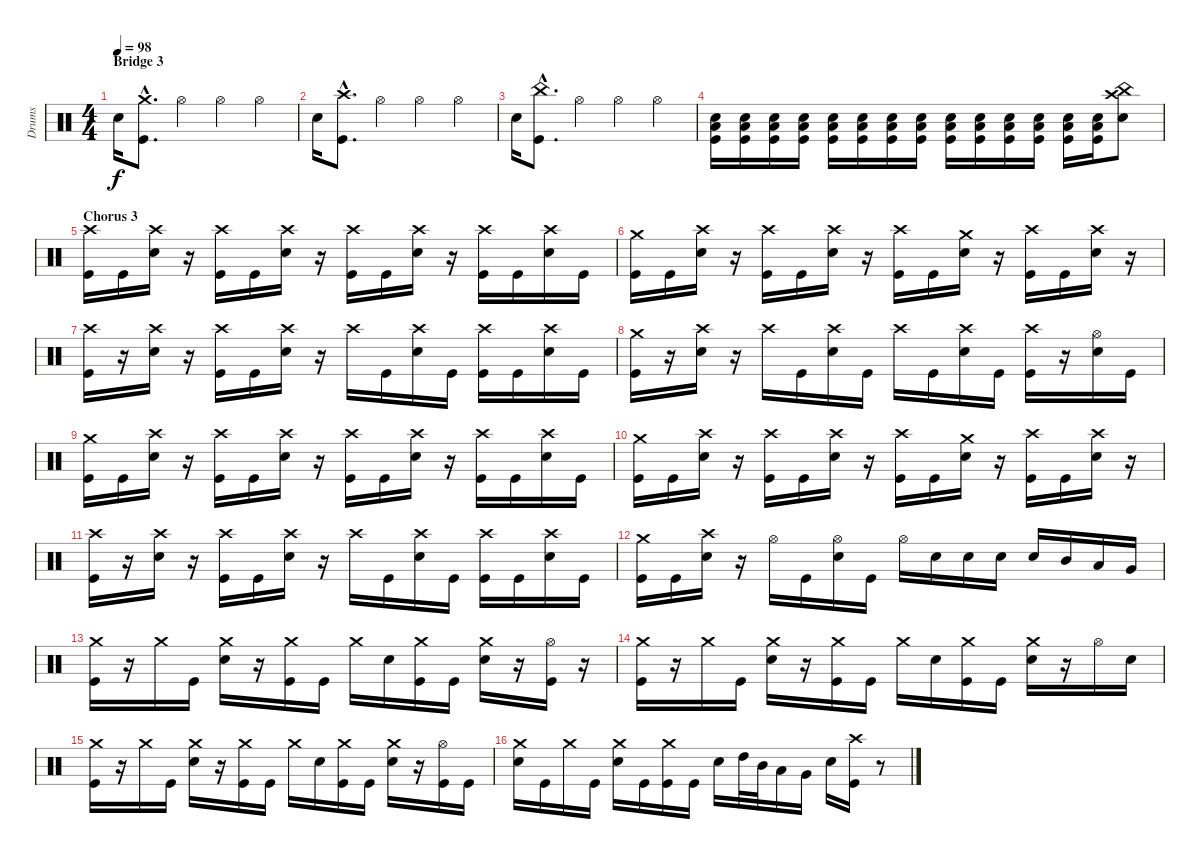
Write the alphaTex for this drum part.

\track ("Drums" "Drums") {instrument percussion}
\staff {score}
\articulation defaults
\ts (4 4)
\section ("" "Bridge 3")
\tempo 98
\clef neutral
\ks c "Electric Snare (hit)".16{dy f}
("Crash medium (hit)"{hac} "Kick (hit)"{hac}).8{d} "Hi-Hat (open)".4 "Hi-Hat (open)".4 "Hi-Hat (open)".4 |
"Electric Snare (hit)".16 ("Crash high (hit)"{hac} "Kick (hit)"{hac}).8{d} "Hi-Hat (open)".4 "Hi-Hat (open)".4 "Hi-Hat (open)".4 |
"Electric Snare (hit)".16 ("China (hit)"{hac} "Kick (hit)"{hac}).8{d} "Hi-Hat (open)".4 "Hi-Hat (open)".4 "Hi-Hat (open)".4 |
("Kick (hit)" "Low Floor Tom (hit)" "Electric Snare (hit)").16 ("Kick (hit)" "Low Floor Tom (hit)" "Electric Snare (hit)").16 ("Kick (hit)" "Low Floor Tom (hit)" "Electric Snare (hit)").16 ("Kick (hit)" "Low Floor Tom (hit)" "Electric Snare (hit)").16 ("Kick (hit)" "Low Floor Tom (hit)" "Electric Snare (hit)").16 ("Kick (hit)" "Low Floor Tom (hit)" "Electric Snare (hit)").16 ("Kick (hit)" "Low Floor Tom (hit)" "Electric Snare (hit)").16 ("Kick (hit)" "Low Floor Tom (hit)" "Electric Snare (hit)").16 ("Kick (hit)" "Low Floor Tom (hit)" "Electric Snare (hit)").16 ("Kick (hit)" "Low Floor Tom (hit)" "Electric Snare (hit)").16 ("Kick (hit)" "Low Floor Tom (hit)" "Electric Snare (hit)").16 ("Kick (hit)" "Low Floor Tom (hit)" "Electric Snare (hit)").16 ("Kick (hit)" "Low Floor Tom (hit)" "Electric Snare (hit)").16 ("Kick (hit)" "Low Floor Tom (hit)" "Electric Snare (hit)").16 ("China (hit)" "Crash high (hit)" "Electric Snare (hit)").8 |
\section ("" "Chorus 3")
("Crash high (hit)" "Kick (hit)").16 "Kick (hit)".16 ("Crash high (hit)" "Electric Snare (hit)").16 r.16 ("Crash high (hit)" "Kick (hit)").16 "Kick (hit)".16 ("Crash high (hit)" "Electric Snare (hit)").16 r.16 ("Crash high (hit)" "Kick (hit)").16 "Kick (hit)".16 ("Crash high (hit)" "Electric Snare (hit)").16 r.16 ("Crash high (hit)" "Kick (hit)").16 "Kick (hit)".16 ("Crash high (hit)" "Electric Snare (hit)").16 "Kick (hit)".16 |
("Crash medium (hit)" "Kick (hit)").16 "Kick (hit)".16 ("Crash high (hit)" "Electric Snare (hit)").16 r.16 ("Crash high (hit)" "Kick (hit)").16 "Kick (hit)".16 ("Crash high (hit)" "Electric Snare (hit)").16 r.16 ("Crash high (hit)" "Kick (hit)").16 "Kick (hit)".16 ("Crash medium (hit)" "Electric Snare (hit)").16 r.16 ("Crash high (hit)" "Kick (hit)").16 "Kick (hit)".16 ("Crash high (hit)" "Electric Snare (hit)").16 r.16 |
("Crash high (hit)" "Kick (hit)").16 r.16 ("Crash high (hit)" "Electric Snare (hit)").16 r.16 ("Crash high (hit)" "Kick (hit)").16 "Kick (hit)".16 ("Crash high (hit)" "Electric Snare (hit)").16 r.16 "Crash high (hit)".16 "Kick (hit)".16 ("Crash high (hit)" "Electric Snare (hit)").16 "Kick (hit)".16 ("Crash high (hit)" "Kick (hit)").16 "Kick (hit)".16 ("Crash high (hit)" "Electric Snare (hit)").16 "Kick (hit)".16 |
("Crash medium (hit)" "Kick (hit)").16 r.16 ("Crash high (hit)" "Electric Snare (hit)").16 r.16 "Crash high (hit)".16 "Kick (hit)".16 ("Crash high (hit)" "Electric Snare (hit)").16 "Kick (hit)".16 "Crash high (hit)".16 "Kick (hit)".16 ("Crash high (hit)" "Electric Snare (hit)").16 "Kick (hit)".16 ("Crash high (hit)" "Kick (hit)").16 r.16 ("Hi-Hat (open)" "Electric Snare (hit)").16 "Kick (hit)".16 |
("Crash medium (hit)" "Kick (hit)").16 "Kick (hit)".16 ("Crash high (hit)" "Electric Snare (hit)").16 r.16 ("Crash high (hit)" "Kick (hit)").16 "Kick (hit)".16 ("Crash high (hit)" "Electric Snare (hit)").16 r.16 ("Crash high (hit)" "Kick (hit)").16 "Kick (hit)".16 ("Crash high (hit)" "Electric Snare (hit)").16 r.16 ("Crash high (hit)" "Kick (hit)").16 "Kick (hit)".16 ("Crash high (hit)" "Electric Snare (hit)").16 "Kick (hit)".16 |
("Crash medium (hit)" "Kick (hit)").16 "Kick (hit)".16 ("Crash high (hit)" "Electric Snare (hit)").16 r.16 ("Crash high (hit)" "Kick (hit)").16 "Kick (hit)".16 ("Crash high (hit)" "Electric Snare (hit)").16 r.16 ("Crash high (hit)" "Kick (hit)").16 "Kick (hit)".16 ("Crash medium (hit)" "Electric Snare (hit)").16 r.16 ("Crash high (hit)" "Kick (hit)").16 "Kick (hit)".16 ("Crash high (hit)" "Electric Snare (hit)").16 r.16 |
("Crash high (hit)" "Kick (hit)").16 r.16 ("Crash high (hit)" "Electric Snare (hit)").16 r.16 ("Crash high (hit)" "Kick (hit)").16 "Kick (hit)".16 ("Crash high (hit)" "Electric Snare (hit)").16 r.16 "Crash high (hit)".16 "Kick (hit)".16 ("Crash high (hit)" "Electric Snare (hit)").16 "Kick (hit)".16 ("Crash high (hit)" "Kick (hit)").16 "Kick (hit)".16 ("Crash high (hit)" "Electric Snare (hit)").16 "Kick (hit)".16 |
("Crash medium (hit)" "Kick (hit)").16 "Kick (hit)".16 ("Crash high (hit)" "Electric Snare (hit)").16 r.16 "Hi-Hat (open)".16 "Kick (hit)".16 ("Hi-Hat (open)" "Electric Snare (hit)").16 "Kick (hit)".16 "Hi-Hat (open)".16 "Electric Snare (hit)".16 "Electric Snare (hit)".16 "Electric Snare (hit)".16 "Electric Snare (hit)".16 "Mid Tom (hit)".16 "Low Tom (hit)".16 "Very Low Tom (hit)".16 |
("Crash medium (hit)" "Kick (hit)").16 r.16 "Crash medium (hit)".16 "Kick (hit)".16 ("Crash medium (hit)" "Electric Snare (hit)").16 r.16 ("Crash medium (hit)" "Kick (hit)").16 "Kick (hit)".16 "Crash medium (hit)".16 "Electric Snare (hit)".16 ("Crash medium (hit)" "Kick (hit)").16 "Kick (hit)".16 ("Crash medium (hit)" "Electric Snare (hit)").16 r.16 ("Hi-Hat (open)" "Kick (hit)").16 r.16 |
("Crash medium (hit)" "Kick (hit)").16 r.16 "Crash medium (hit)".16 "Kick (hit)".16 ("Crash medium (hit)" "Electric Snare (hit)").16 r.16 ("Crash medium (hit)" "Kick (hit)").16 "Kick (hit)".16 "Crash medium (hit)".16 "Electric Snare (hit)".16 ("Crash medium (hit)" "Kick (hit)").16 "Kick (hit)".16 ("Crash medium (hit)" "Electric Snare (hit)").16 r.16 "Hi-Hat (open)".16 "Electric Snare (hit)".16 |
("Crash medium (hit)" "Kick (hit)").16 r.16 "Crash medium (hit)".16 "Kick (hit)".16 ("Crash medium (hit)" "Electric Snare (hit)").16 r.16 ("Crash medium (hit)" "Kick (hit)").16 "Kick (hit)".16 "Crash medium (hit)".16 "Electric Snare (hit)".16 ("Crash medium (hit)" "Kick (hit)").16 "Kick (hit)".16 ("Crash medium (hit)" "Electric Snare (hit)").16 r.16 ("Hi-Hat (open)" "Kick (hit)").16 "Kick (hit)".16 |
("Crash medium (hit)" "Electric Snare (hit)").16 "Kick (hit)".16 "Crash medium (hit)".16 "Kick (hit)".16 ("Crash medium (hit)" "Electric Snare (hit)").16 "Kick (hit)".16 ("Crash medium (hit)" "Kick (hit)").16 "Kick (hit)".16 "Electric Snare (hit)".16 "High Tom (hit)".32 "Mid Tom (hit)".32 "Low Tom (hit)".16 "Very Low Tom (hit)".16 "Electric Snare (hit)".16 ("Crash high (hit)" "Kick (hit)").16 r.8
